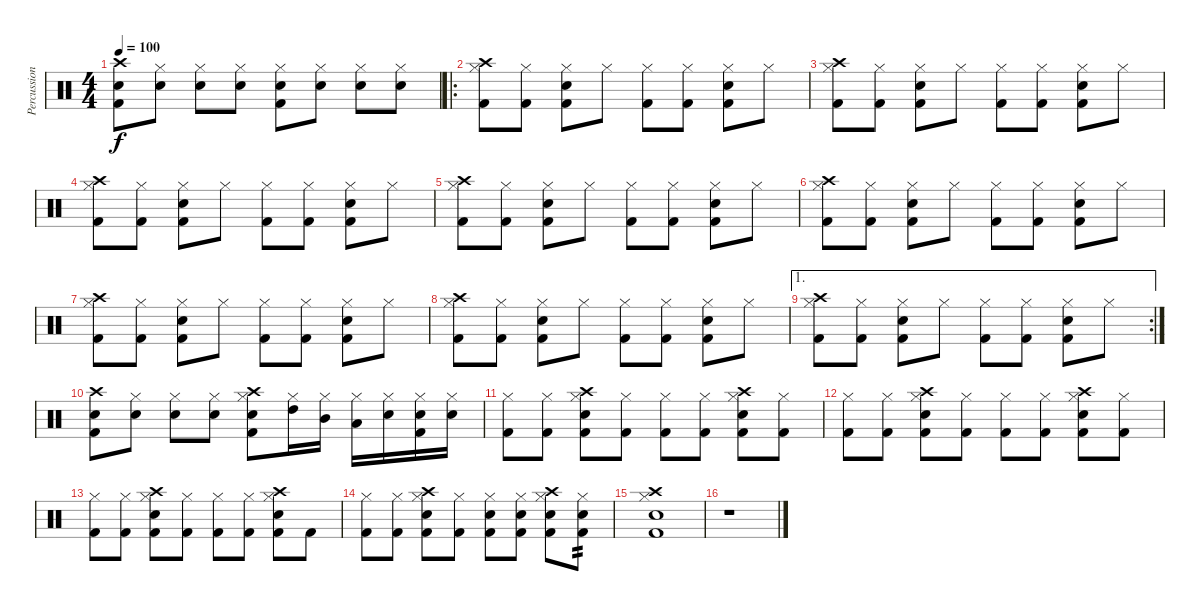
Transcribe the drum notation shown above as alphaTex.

\track ("Percussion" "Percussion") {instrument percussion}
\staff {score}
\articulation defaults
\ts (4 4)
\tempo 100
\clef neutral
\ks c
("Kick (hit) 2" "Snare (hit) 2" "Crash high (hit)").8{dy f} ("Snare (hit) 2" "Hi-Hat (closed)").8 ("Snare (hit) 2" "Hi-Hat (closed)").8 ("Snare (hit) 2" "Hi-Hat (closed)").8 ("Kick (hit) 2" "Snare (hit) 2" "Hi-Hat (closed)").8 ("Snare (hit) 2" "Hi-Hat (closed)").8 ("Snare (hit) 2" "Hi-Hat (closed)").8 ("Snare (hit) 2" "Hi-Hat (closed)").8 |
\ro
("Kick (hit) 2" "Hi-Hat (closed)" "Crash high (hit)").8 ("Kick (hit) 2" "Hi-Hat (closed)").8 ("Kick (hit) 2" "Snare (hit) 2" "Hi-Hat (closed)").8 "Hi-Hat (closed)".8 ("Kick (hit) 2" "Hi-Hat (closed)").8 ("Kick (hit) 2" "Hi-Hat (closed)").8 ("Kick (hit) 2" "Snare (hit) 2" "Hi-Hat (closed)").8 "Hi-Hat (closed)".8 |
("Kick (hit) 2" "Hi-Hat (closed)" "Crash high (hit)").8 ("Kick (hit) 2" "Hi-Hat (closed)").8 ("Kick (hit) 2" "Snare (hit) 2" "Hi-Hat (closed)").8 "Hi-Hat (closed)".8 ("Kick (hit) 2" "Hi-Hat (closed)").8 ("Kick (hit) 2" "Hi-Hat (closed)").8 ("Kick (hit) 2" "Snare (hit) 2" "Hi-Hat (closed)").8 "Hi-Hat (closed)".8 |
("Kick (hit) 2" "Hi-Hat (closed)" "Crash high (hit)").8 ("Kick (hit) 2" "Hi-Hat (closed)").8 ("Kick (hit) 2" "Snare (hit) 2" "Hi-Hat (closed)").8 "Hi-Hat (closed)".8 ("Kick (hit) 2" "Hi-Hat (closed)").8 ("Kick (hit) 2" "Hi-Hat (closed)").8 ("Kick (hit) 2" "Snare (hit) 2" "Hi-Hat (closed)").8 "Hi-Hat (closed)".8 |
("Kick (hit) 2" "Hi-Hat (closed)" "Crash high (hit)").8 ("Kick (hit) 2" "Hi-Hat (closed)").8 ("Kick (hit) 2" "Snare (hit) 2" "Hi-Hat (closed)").8 "Hi-Hat (closed)".8 ("Kick (hit) 2" "Hi-Hat (closed)").8 ("Kick (hit) 2" "Hi-Hat (closed)").8 ("Kick (hit) 2" "Snare (hit) 2" "Hi-Hat (closed)").8 "Hi-Hat (closed)".8 |
("Kick (hit) 2" "Hi-Hat (closed)" "Crash high (hit)").8 ("Kick (hit) 2" "Hi-Hat (closed)").8 ("Kick (hit) 2" "Snare (hit) 2" "Hi-Hat (closed)").8 "Hi-Hat (closed)".8 ("Kick (hit) 2" "Hi-Hat (closed)").8 ("Kick (hit) 2" "Hi-Hat (closed)").8 ("Kick (hit) 2" "Snare (hit) 2" "Hi-Hat (closed)").8 "Hi-Hat (closed)".8 |
("Kick (hit) 2" "Hi-Hat (closed)" "Crash high (hit)").8 ("Kick (hit) 2" "Hi-Hat (closed)").8 ("Kick (hit) 2" "Snare (hit) 2" "Hi-Hat (closed)").8 "Hi-Hat (closed)".8 ("Kick (hit) 2" "Hi-Hat (closed)").8 ("Kick (hit) 2" "Hi-Hat (closed)").8 ("Kick (hit) 2" "Snare (hit) 2" "Hi-Hat (closed)").8 "Hi-Hat (closed)".8 |
("Kick (hit) 2" "Hi-Hat (closed)" "Crash high (hit)").8 ("Kick (hit) 2" "Hi-Hat (closed)").8 ("Kick (hit) 2" "Snare (hit) 2" "Hi-Hat (closed)").8 "Hi-Hat (closed)".8 ("Kick (hit) 2" "Hi-Hat (closed)").8 ("Kick (hit) 2" "Hi-Hat (closed)").8 ("Kick (hit) 2" "Snare (hit) 2" "Hi-Hat (closed)").8 "Hi-Hat (closed)".8 |
\ae 1
\rc 2
("Kick (hit) 2" "Hi-Hat (closed)" "Crash high (hit)").8 ("Kick (hit) 2" "Hi-Hat (closed)").8 ("Kick (hit) 2" "Snare (hit) 2" "Hi-Hat (closed)").8 "Hi-Hat (closed)".8 ("Kick (hit) 2" "Hi-Hat (closed)").8 ("Kick (hit) 2" "Hi-Hat (closed)").8 ("Kick (hit) 2" "Snare (hit) 2" "Hi-Hat (closed)").8 "Hi-Hat (closed)".8 |
("Kick (hit) 2" "Snare (hit) 2" "Crash high (hit)").8 ("Snare (hit) 2" "Hi-Hat (closed)").8 ("Snare (hit) 2" "Hi-Hat (closed)").8 ("Snare (hit) 2" "Hi-Hat (closed)").8 ("Kick (hit) 2" "Snare (hit) 2" "Hi-Hat (closed)" "Crash high (hit)").8 ("High Tom (hit)" "Hi-Hat (closed)").16 ("Mid Tom (hit)" "Hi-Hat (closed)").16 ("Low Tom (hit)" "Hi-Hat (closed)").16 ("Snare (hit) 2" "Hi-Hat (closed)").16 ("Kick (hit) 2" "Snare (hit) 2" "Hi-Hat (closed)").16 ("Snare (hit) 2" "Hi-Hat (closed)").16 |
("Kick (hit) 2" "Hi-Hat (closed)").8 ("Kick (hit) 2" "Hi-Hat (closed)").8 ("Kick (hit) 2" "Snare (hit) 2" "Hi-Hat (closed)" "Crash high (hit)").8 ("Kick (hit) 2" "Hi-Hat (closed)").8 ("Kick (hit) 2" "Hi-Hat (closed)").8 ("Kick (hit) 2" "Hi-Hat (closed)").8 ("Kick (hit) 2" "Snare (hit) 2" "Hi-Hat (closed)" "Crash high (hit)").8 ("Kick (hit) 2" "Hi-Hat (closed)").8 |
("Kick (hit) 2" "Hi-Hat (closed)").8 ("Kick (hit) 2" "Hi-Hat (closed)").8 ("Kick (hit) 2" "Snare (hit) 2" "Hi-Hat (closed)" "Crash high (hit)").8 ("Kick (hit) 2" "Hi-Hat (closed)").8 ("Kick (hit) 2" "Hi-Hat (closed)").8 ("Kick (hit) 2" "Hi-Hat (closed)").8 ("Kick (hit) 2" "Snare (hit) 2" "Hi-Hat (closed)" "Crash high (hit)").8 ("Kick (hit) 2" "Hi-Hat (closed)").8 |
("Kick (hit) 2" "Hi-Hat (closed)").8 ("Kick (hit) 2" "Hi-Hat (closed)").8 ("Kick (hit) 2" "Snare (hit) 2" "Hi-Hat (closed)" "Crash high (hit)").8 ("Kick (hit) 2" "Hi-Hat (closed)").8 ("Kick (hit) 2" "Hi-Hat (closed)").8 ("Kick (hit) 2" "Hi-Hat (closed)").8 ("Kick (hit) 2" "Snare (hit) 2" "Hi-Hat (closed)" "Crash high (hit)").8 "Kick (hit) 2".8 |
("Kick (hit) 2" "Hi-Hat (closed)").8 ("Kick (hit) 2" "Hi-Hat (closed)").8 ("Kick (hit) 2" "Snare (hit) 2" "Hi-Hat (closed)" "Crash high (hit)").8 ("Kick (hit) 2" "Hi-Hat (closed)").8 ("Kick (hit) 2" "Snare (hit) 2" "Hi-Hat (closed)").8 ("Kick (hit) 2" "Snare (hit) 2" "Hi-Hat (closed)").8 ("Kick (hit) 2" "Snare (hit) 2" "Hi-Hat (closed)" "Crash high (hit)").8 ("Kick (hit) 2" "Snare (hit) 2" "Hi-Hat (closed)").8{tp 2} |
("Kick (hit) 2" "Snare (hit) 2" "Hi-Hat (closed)" "Crash high (hit)").1 |
r.1
